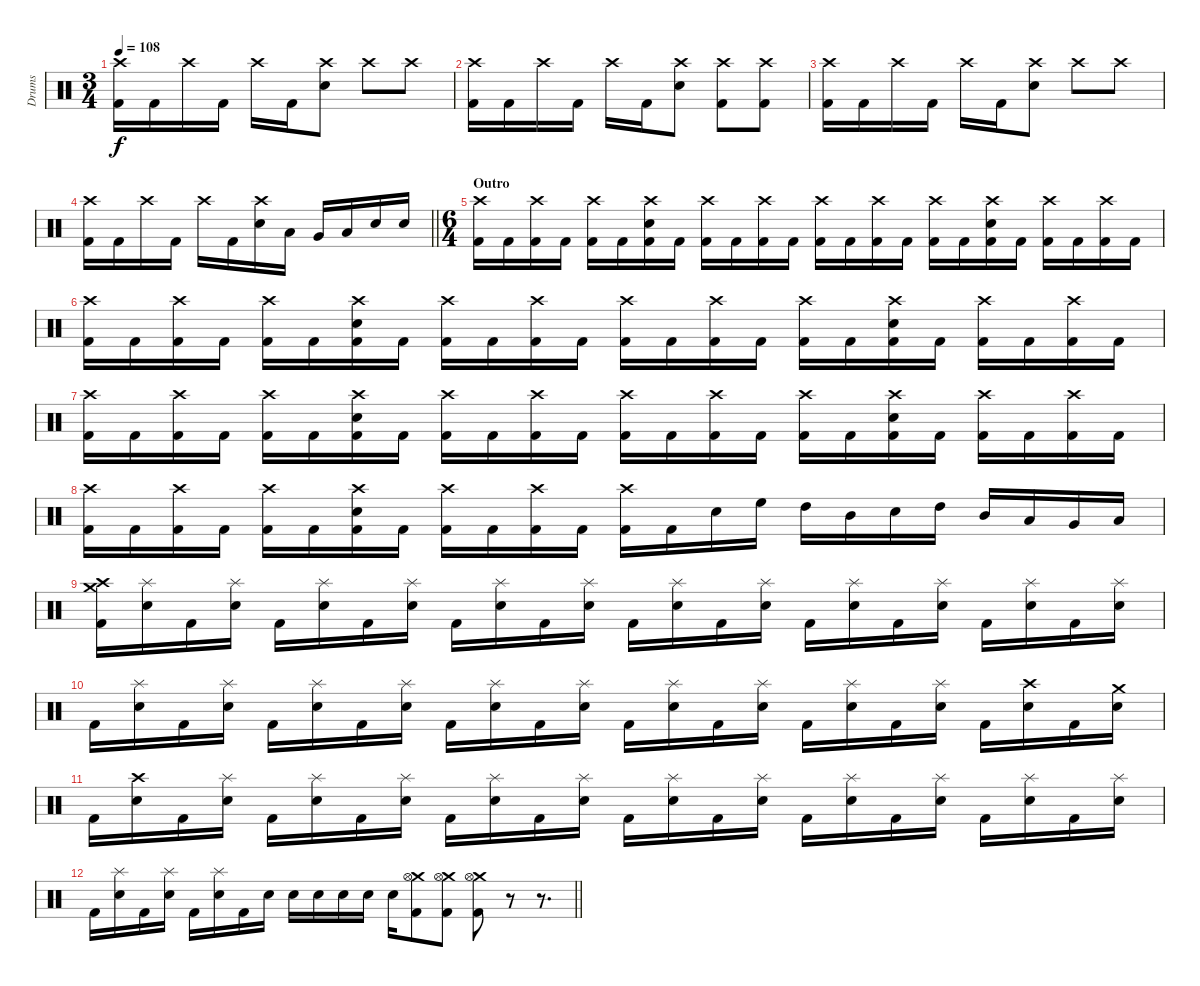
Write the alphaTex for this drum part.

\track ("Drums" "Drums") {instrument percussion}
\staff {score}
\articulation defaults
\ts (3 4)
\tempo 108
\clef neutral
\ks c
("Crash high (hit)" "Kick (hit) 2").16{dy f} "Kick (hit) 2".16 "Crash high (hit)".16 "Kick (hit) 2".16 "Crash high (hit)".16 "Kick (hit) 2".16 ("Crash high (hit)" "Electric Snare (hit)").8 "Crash high (hit)".8 "Crash high (hit)".8 |
("Crash high (hit)" "Kick (hit) 2").16 "Kick (hit) 2".16 "Crash high (hit)".16 "Kick (hit) 2".16 "Crash high (hit)".16 "Kick (hit) 2".16 ("Crash high (hit)" "Electric Snare (hit)").8 ("Crash high (hit)" "Kick (hit) 2").8 ("Crash high (hit)" "Kick (hit) 2").8 |
("Crash high (hit)" "Kick (hit) 2").16 "Kick (hit) 2".16 "Crash high (hit)".16 "Kick (hit) 2".16 "Crash high (hit)".16 "Kick (hit) 2".16 ("Crash high (hit)" "Electric Snare (hit)").8 "Crash high (hit)".8 "Crash high (hit)".8 |
\barLineRight lightlight
("Crash high (hit)" "Kick (hit) 2").16 "Kick (hit) 2".16 "Crash high (hit)".16 "Kick (hit) 2".16 "Crash high (hit)".16 "Kick (hit) 2".16 ("Crash high (hit)" "Electric Snare (hit)").16 "Low Tom (hit)".16 "Very Low Tom (hit)".16 "Low Floor Tom (hit)".16 "Electric Snare (hit)".16 "Electric Snare (hit)".16 |
\ts (6 4)
\section ("" "Outro")
("Crash high (hit)" "Kick (hit) 2").16 "Kick (hit) 2".16 ("Crash high (hit)" "Kick (hit) 2").16 "Kick (hit) 2".16 ("Crash high (hit)" "Kick (hit) 2").16 "Kick (hit) 2".16 ("Crash high (hit)" "Electric Snare (hit)" "Kick (hit) 2").16 "Kick (hit) 2".16 ("Crash high (hit)" "Kick (hit) 2").16 "Kick (hit) 2".16 ("Crash high (hit)" "Kick (hit) 2").16 "Kick (hit) 2".16 ("Crash high (hit)" "Kick (hit) 2").16 "Kick (hit) 2".16 ("Crash high (hit)" "Kick (hit) 2").16 "Kick (hit) 2".16 ("Crash high (hit)" "Kick (hit) 2").16 "Kick (hit) 2".16 ("Crash high (hit)" "Electric Snare (hit)" "Kick (hit) 2").16 "Kick (hit) 2".16 ("Crash high (hit)" "Kick (hit) 2").16 "Kick (hit) 2".16 ("Crash high (hit)" "Kick (hit) 2").16 "Kick (hit) 2".16 |
("Crash high (hit)" "Kick (hit) 2").16 "Kick (hit) 2".16 ("Crash high (hit)" "Kick (hit) 2").16 "Kick (hit) 2".16 ("Crash high (hit)" "Kick (hit) 2").16 "Kick (hit) 2".16 ("Crash high (hit)" "Electric Snare (hit)" "Kick (hit) 2").16 "Kick (hit) 2".16 ("Crash high (hit)" "Kick (hit) 2").16 "Kick (hit) 2".16 ("Crash high (hit)" "Kick (hit) 2").16 "Kick (hit) 2".16 ("Crash high (hit)" "Kick (hit) 2").16 "Kick (hit) 2".16 ("Crash high (hit)" "Kick (hit) 2").16 "Kick (hit) 2".16 ("Crash high (hit)" "Kick (hit) 2").16 "Kick (hit) 2".16 ("Crash high (hit)" "Electric Snare (hit)" "Kick (hit) 2").16 "Kick (hit) 2".16 ("Crash high (hit)" "Kick (hit) 2").16 "Kick (hit) 2".16 ("Crash high (hit)" "Kick (hit) 2").16 "Kick (hit) 2".16 |
("Crash high (hit)" "Kick (hit) 2").16 "Kick (hit) 2".16 ("Crash high (hit)" "Kick (hit) 2").16 "Kick (hit) 2".16 ("Crash high (hit)" "Kick (hit) 2").16 "Kick (hit) 2".16 ("Crash high (hit)" "Electric Snare (hit)" "Kick (hit) 2").16 "Kick (hit) 2".16 ("Crash high (hit)" "Kick (hit) 2").16 "Kick (hit) 2".16 ("Crash high (hit)" "Kick (hit) 2").16 "Kick (hit) 2".16 ("Crash high (hit)" "Kick (hit) 2").16 "Kick (hit) 2".16 ("Crash high (hit)" "Kick (hit) 2").16 "Kick (hit) 2".16 ("Crash high (hit)" "Kick (hit) 2").16 "Kick (hit) 2".16 ("Crash high (hit)" "Electric Snare (hit)" "Kick (hit) 2").16 "Kick (hit) 2".16 ("Crash high (hit)" "Kick (hit) 2").16 "Kick (hit) 2".16 ("Crash high (hit)" "Kick (hit) 2").16 "Kick (hit) 2".16 |
("Crash high (hit)" "Kick (hit) 2").16 "Kick (hit) 2".16 ("Crash high (hit)" "Kick (hit) 2").16 "Kick (hit) 2".16 ("Crash high (hit)" "Kick (hit) 2").16 "Kick (hit) 2".16 ("Crash high (hit)" "Electric Snare (hit)" "Kick (hit) 2").16 "Kick (hit) 2".16 ("Crash high (hit)" "Kick (hit) 2").16 "Kick (hit) 2".16 ("Crash high (hit)" "Kick (hit) 2").16 "Kick (hit) 2".16 ("Crash high (hit)" "Kick (hit) 2").16 "Kick (hit) 2".16 "Electric Snare (hit)".16 "High Floor Tom (hit)".16 "High Tom (hit)".16 "Mid Tom (hit)".16 "Electric Snare (hit)".16 "High Tom (hit)".16 "Mid Tom (hit)".16 "Low Tom (hit)".16 "Very Low Tom (hit)".16 "Low Floor Tom (hit)".16 |
("Crash medium (hit)" "Crash high (hit)" "Kick (hit) 2").16 ("Splash (hit)" "Electric Snare (hit)").16 "Kick (hit) 2".16 ("Splash (hit)" "Electric Snare (hit)").16 "Kick (hit) 2".16 ("Splash (hit)" "Electric Snare (hit)").16 "Kick (hit) 2".16 ("Splash (hit)" "Electric Snare (hit)").16 "Kick (hit) 2".16 ("Splash (hit)" "Electric Snare (hit)").16 "Kick (hit) 2".16 ("Splash (hit)" "Electric Snare (hit)").16 "Kick (hit) 2".16 ("Splash (hit)" "Electric Snare (hit)").16 "Kick (hit) 2".16 ("Splash (hit)" "Electric Snare (hit)").16 "Kick (hit) 2".16 ("Splash (hit)" "Electric Snare (hit)").16 "Kick (hit) 2".16 ("Splash (hit)" "Electric Snare (hit)").16 "Kick (hit) 2".16 ("Splash (hit)" "Electric Snare (hit)").16 "Kick (hit) 2".16 ("Splash (hit)" "Electric Snare (hit)").16 |
"Kick (hit) 2".16 ("Splash (hit)" "Electric Snare (hit)").16 "Kick (hit) 2".16 ("Splash (hit)" "Electric Snare (hit)").16 "Kick (hit) 2".16 ("Splash (hit)" "Electric Snare (hit)").16 "Kick (hit) 2".16 ("Splash (hit)" "Electric Snare (hit)").16 "Kick (hit) 2".16 ("Splash (hit)" "Electric Snare (hit)").16 "Kick (hit) 2".16 ("Splash (hit)" "Electric Snare (hit)").16 "Kick (hit) 2".16 ("Splash (hit)" "Electric Snare (hit)").16 "Kick (hit) 2".16 ("Splash (hit)" "Electric Snare (hit)").16 "Kick (hit) 2".16 ("Splash (hit)" "Electric Snare (hit)").16 "Kick (hit) 2".16 ("Splash (hit)" "Electric Snare (hit)").16 "Kick (hit) 2".16 ("Crash high (hit)" "Electric Snare (hit)").16 "Kick (hit) 2".16 ("Crash medium (hit)" "Electric Snare (hit)").16 |
"Kick (hit) 2".16 ("Crash high (hit)" "Electric Snare (hit)").16 "Kick (hit) 2".16 ("Splash (hit)" "Electric Snare (hit)").16 "Kick (hit) 2".16 ("Splash (hit)" "Electric Snare (hit)").16 "Kick (hit) 2".16 ("Splash (hit)" "Electric Snare (hit)").16 "Kick (hit) 2".16 ("Splash (hit)" "Electric Snare (hit)").16 "Kick (hit) 2".16 ("Splash (hit)" "Electric Snare (hit)").16 "Kick (hit) 2".16 ("Splash (hit)" "Electric Snare (hit)").16 "Kick (hit) 2".16 ("Splash (hit)" "Electric Snare (hit)").16 "Kick (hit) 2".16 ("Splash (hit)" "Electric Snare (hit)").16 "Kick (hit) 2".16 ("Splash (hit)" "Electric Snare (hit)").16 "Kick (hit) 2".16 ("Splash (hit)" "Electric Snare (hit)").16 "Kick (hit) 2".16 ("Splash (hit)" "Electric Snare (hit)").16 |
\barLineRight lightlight "Kick (hit) 2".16
("Splash (hit)" "Electric Snare (hit)").16 "Kick (hit) 2".16 ("Splash (hit)" "Electric Snare (hit)").16 "Kick (hit) 2".16 ("Splash (hit)" "Electric Snare (hit)").16 "Kick (hit) 2".16 "Electric Snare (hit)".16 "Electric Snare (hit)".16 "Electric Snare (hit)".16 "Electric Snare (hit)".16 "Electric Snare (hit)".16 "Electric Snare (hit)".16 ("Crash medium (hit)" "Hi-Hat (open)" "Kick (hit) 2").8 ("Crash medium (hit)" "Hi-Hat (open)" "Kick (hit) 2").8 ("Crash medium (hit)" "Hi-Hat (open)" "Kick (hit) 2").8 r.8 r.8{d}
